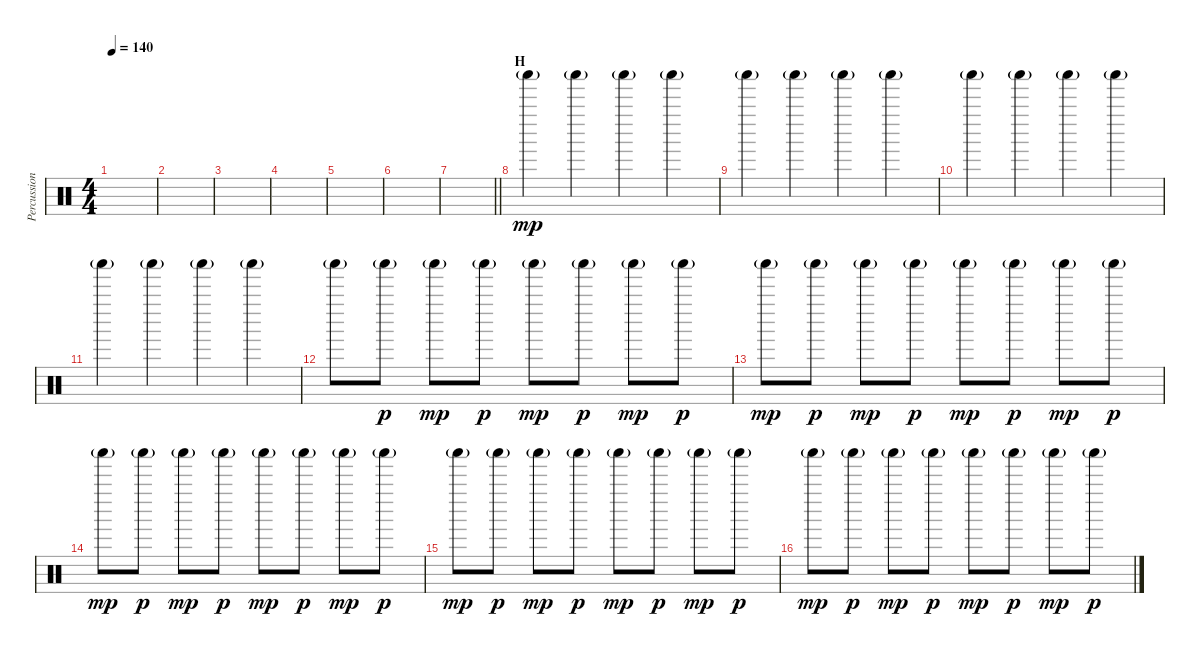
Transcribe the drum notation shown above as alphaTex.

\track ("Percussion" "Percussion") {instrument percussion}
\staff {score}
\articulation defaults
\ts (4 4)
\tempo 140
\clef neutral
\ks c
|
|
|
|
|
|
\barLineRight lightlight
|
\section ("" "H")
"Shaker (hit)"{g}.4{dy mp} "Shaker (hit)"{g}.4 "Shaker (hit)"{g}.4 "Shaker (hit)"{g}.4 |
"Shaker (hit)"{g}.4 "Shaker (hit)"{g}.4 "Shaker (hit)"{g}.4 "Shaker (hit)"{g}.4 |
"Shaker (hit)"{g}.4 "Shaker (hit)"{g}.4 "Shaker (hit)"{g}.4 "Shaker (hit)"{g}.4 |
"Shaker (hit)"{g}.4 "Shaker (hit)"{g}.4 "Shaker (hit)"{g}.4 "Shaker (hit)"{g}.4 |
"Shaker (hit)"{g}.8 "Shaker (hit)"{g}.8{dy p} "Shaker (hit)"{g}.8{dy mp} "Shaker (hit)"{g}.8{dy p} "Shaker (hit)"{g}.8{dy mp} "Shaker (hit)"{g}.8{dy p} "Shaker (hit)"{g}.8{dy mp} "Shaker (hit)"{g}.8{dy p} |
"Shaker (hit)"{g}.8{dy mp} "Shaker (hit)"{g}.8{dy p} "Shaker (hit)"{g}.8{dy mp} "Shaker (hit)"{g}.8{dy p} "Shaker (hit)"{g}.8{dy mp} "Shaker (hit)"{g}.8{dy p} "Shaker (hit)"{g}.8{dy mp} "Shaker (hit)"{g}.8{dy p} |
"Shaker (hit)"{g}.8{dy mp} "Shaker (hit)"{g}.8{dy p} "Shaker (hit)"{g}.8{dy mp} "Shaker (hit)"{g}.8{dy p} "Shaker (hit)"{g}.8{dy mp} "Shaker (hit)"{g}.8{dy p} "Shaker (hit)"{g}.8{dy mp} "Shaker (hit)"{g}.8{dy p} |
"Shaker (hit)"{g}.8{dy mp} "Shaker (hit)"{g}.8{dy p} "Shaker (hit)"{g}.8{dy mp} "Shaker (hit)"{g}.8{dy p} "Shaker (hit)"{g}.8{dy mp} "Shaker (hit)"{g}.8{dy p} "Shaker (hit)"{g}.8{dy mp} "Shaker (hit)"{g}.8{dy p} |
"Shaker (hit)"{g}.8{dy mp} "Shaker (hit)"{g}.8{dy p} "Shaker (hit)"{g}.8{dy mp} "Shaker (hit)"{g}.8{dy p} "Shaker (hit)"{g}.8{dy mp} "Shaker (hit)"{g}.8{dy p} "Shaker (hit)"{g}.8{dy mp} "Shaker (hit)"{g}.8{dy p}
